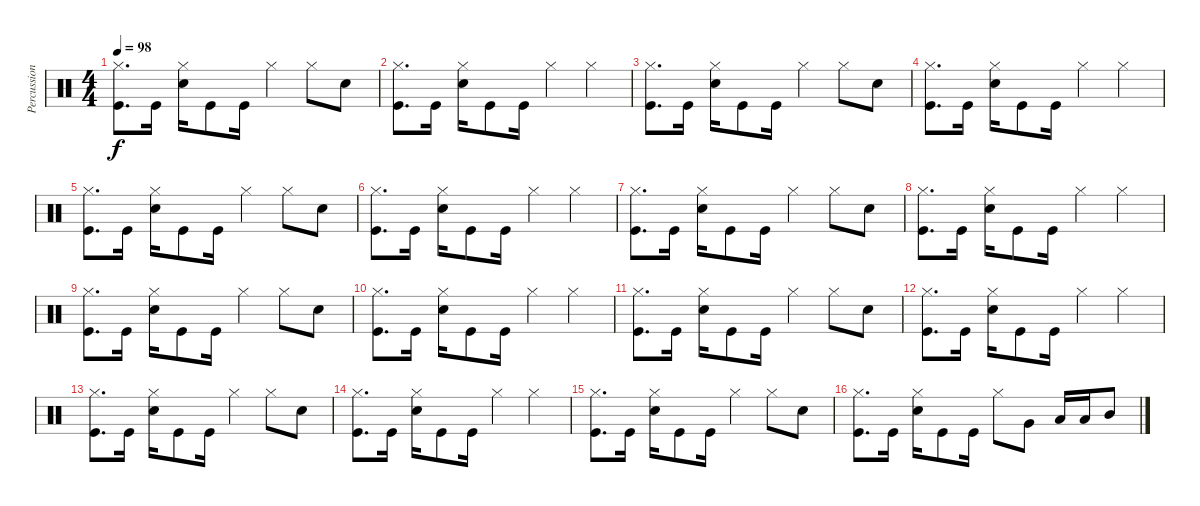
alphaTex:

\track ("Percussioni" "Percussion") {instrument percussion}
\staff {score}
\articulation defaults
\ts (4 4)
\tempo 98
\clef neutral
\ks c
("Kick (hit)" "Hi-Hat (closed)").8{d dy f} "Kick (hit)".16 ("Snare (hit) 2" "Hi-Hat (closed)").16 "Kick (hit)".8 "Kick (hit)".16 "Hi-Hat (closed)".4 "Hi-Hat (closed)".8 "Snare (hit) 2".8 |
("Kick (hit)" "Hi-Hat (closed)").8{d} "Kick (hit)".16 ("Snare (hit) 2" "Hi-Hat (closed)").16 "Kick (hit)".8 "Kick (hit)".16 "Hi-Hat (closed)".4 "Hi-Hat (closed)".4 |
("Kick (hit)" "Hi-Hat (closed)").8{d} "Kick (hit)".16 ("Snare (hit) 2" "Hi-Hat (closed)").16 "Kick (hit)".8 "Kick (hit)".16 "Hi-Hat (closed)".4 "Hi-Hat (closed)".8 "Snare (hit) 2".8 |
("Kick (hit)" "Hi-Hat (closed)").8{d} "Kick (hit)".16 ("Snare (hit) 2" "Hi-Hat (closed)").16 "Kick (hit)".8 "Kick (hit)".16 "Hi-Hat (closed)".4 "Hi-Hat (closed)".4 |
("Kick (hit)" "Hi-Hat (closed)").8{d} "Kick (hit)".16 ("Snare (hit) 2" "Hi-Hat (closed)").16 "Kick (hit)".8 "Kick (hit)".16 "Hi-Hat (closed)".4 "Hi-Hat (closed)".8 "Snare (hit) 2".8 |
("Kick (hit)" "Hi-Hat (closed)").8{d} "Kick (hit)".16 ("Snare (hit) 2" "Hi-Hat (closed)").16 "Kick (hit)".8 "Kick (hit)".16 "Hi-Hat (closed)".4 "Hi-Hat (closed)".4 |
("Kick (hit)" "Hi-Hat (closed)").8{d} "Kick (hit)".16 ("Snare (hit) 2" "Hi-Hat (closed)").16 "Kick (hit)".8 "Kick (hit)".16 "Hi-Hat (closed)".4 "Hi-Hat (closed)".8 "Snare (hit) 2".8 |
("Kick (hit)" "Hi-Hat (closed)").8{d} "Kick (hit)".16 ("Snare (hit) 2" "Hi-Hat (closed)").16 "Kick (hit)".8 "Kick (hit)".16 "Hi-Hat (closed)".4 "Hi-Hat (closed)".4 |
("Kick (hit)" "Hi-Hat (closed)").8{d} "Kick (hit)".16 ("Snare (hit) 2" "Hi-Hat (closed)").16 "Kick (hit)".8 "Kick (hit)".16 "Hi-Hat (closed)".4 "Hi-Hat (closed)".8 "Snare (hit) 2".8 |
("Kick (hit)" "Hi-Hat (closed)").8{d} "Kick (hit)".16 ("Snare (hit) 2" "Hi-Hat (closed)").16 "Kick (hit)".8 "Kick (hit)".16 "Hi-Hat (closed)".4 "Hi-Hat (closed)".4 |
("Kick (hit)" "Hi-Hat (closed)").8{d} "Kick (hit)".16 ("Snare (hit) 2" "Hi-Hat (closed)").16 "Kick (hit)".8 "Kick (hit)".16 "Hi-Hat (closed)".4 "Hi-Hat (closed)".8 "Snare (hit) 2".8 |
("Kick (hit)" "Hi-Hat (closed)").8{d} "Kick (hit)".16 ("Snare (hit) 2" "Hi-Hat (closed)").16 "Kick (hit)".8 "Kick (hit)".16 "Hi-Hat (closed)".4 "Hi-Hat (closed)".4 |
("Kick (hit)" "Hi-Hat (closed)").8{d} "Kick (hit)".16 ("Snare (hit) 2" "Hi-Hat (closed)").16 "Kick (hit)".8 "Kick (hit)".16 "Hi-Hat (closed)".4 "Hi-Hat (closed)".8 "Snare (hit) 2".8 |
("Kick (hit)" "Hi-Hat (closed)").8{d} "Kick (hit)".16 ("Snare (hit) 2" "Hi-Hat (closed)").16 "Kick (hit)".8 "Kick (hit)".16 "Hi-Hat (closed)".4 "Hi-Hat (closed)".4 |
("Kick (hit)" "Hi-Hat (closed)").8{d} "Kick (hit)".16 ("Snare (hit) 2" "Hi-Hat (closed)").16 "Kick (hit)".8 "Kick (hit)".16 "Hi-Hat (closed)".4 "Hi-Hat (closed)".8 "Snare (hit) 2".8 |
("Kick (hit)" "Hi-Hat (closed)").8{d} "Kick (hit)".16 ("Snare (hit) 2" "Hi-Hat (closed)").16 "Kick (hit)".8 "Kick (hit)".16 "Hi-Hat (closed)".8 "Very Low Tom (hit)".8 "Low Tom (hit)".16 "Low Tom (hit)".16 "Mid Tom (hit)".8
